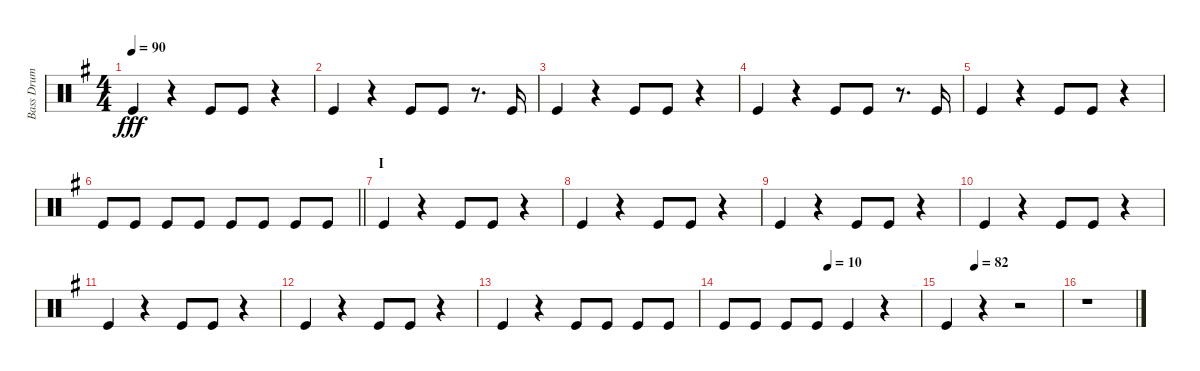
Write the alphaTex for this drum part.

\track ("Bass Drum" "Bass Drum") {instrument percussion}
\staff {score}
\articulation defaults
\ts (4 4)
\tempo 90
\clef neutral
\ks g "Kick (hit)".4{dy fff}
r.4 "Kick (hit)".8 "Kick (hit)".8 r.4 |
"Kick (hit)".4 r.4 "Kick (hit)".8 "Kick (hit)".8 r.8{d} "Kick (hit)".16 |
"Kick (hit)".4 r.4 "Kick (hit)".8 "Kick (hit)".8 r.4 |
"Kick (hit)".4 r.4 "Kick (hit)".8 "Kick (hit)".8 r.8{d} "Kick (hit)".16 |
"Kick (hit)".4 r.4 "Kick (hit)".8 "Kick (hit)".8 r.4 |
\barLineRight lightlight "Kick (hit)".8 "Kick (hit)".8 "Kick (hit)".8 "Kick (hit)".8 "Kick (hit)".8 "Kick (hit)".8 "Kick (hit)".8 "Kick (hit)".8
|
\section ("" "I")
"Kick (hit)".4 r.4 "Kick (hit)".8 "Kick (hit)".8 r.4 |
"Kick (hit)".4 r.4 "Kick (hit)".8 "Kick (hit)".8 r.4 |
"Kick (hit)".4 r.4 "Kick (hit)".8 "Kick (hit)".8 r.4 |
"Kick (hit)".4 r.4 "Kick (hit)".8 "Kick (hit)".8 r.4 |
"Kick (hit)".4 r.4 "Kick (hit)".8 "Kick (hit)".8 r.4 |
"Kick (hit)".4 r.4 "Kick (hit)".8 "Kick (hit)".8 r.4 |
"Kick (hit)".4 r.4 "Kick (hit)".8 "Kick (hit)".8 "Kick (hit)".8 "Kick (hit)".8 |
\tempo (10 0.53125)
"Kick (hit)".8 "Kick (hit)".8 "Kick (hit)".8 "Kick (hit)".8 "Kick (hit)".4 r.4 |
\tempo (82 0.25)
"Kick (hit)".4 r.4 r.2 |
r.1
